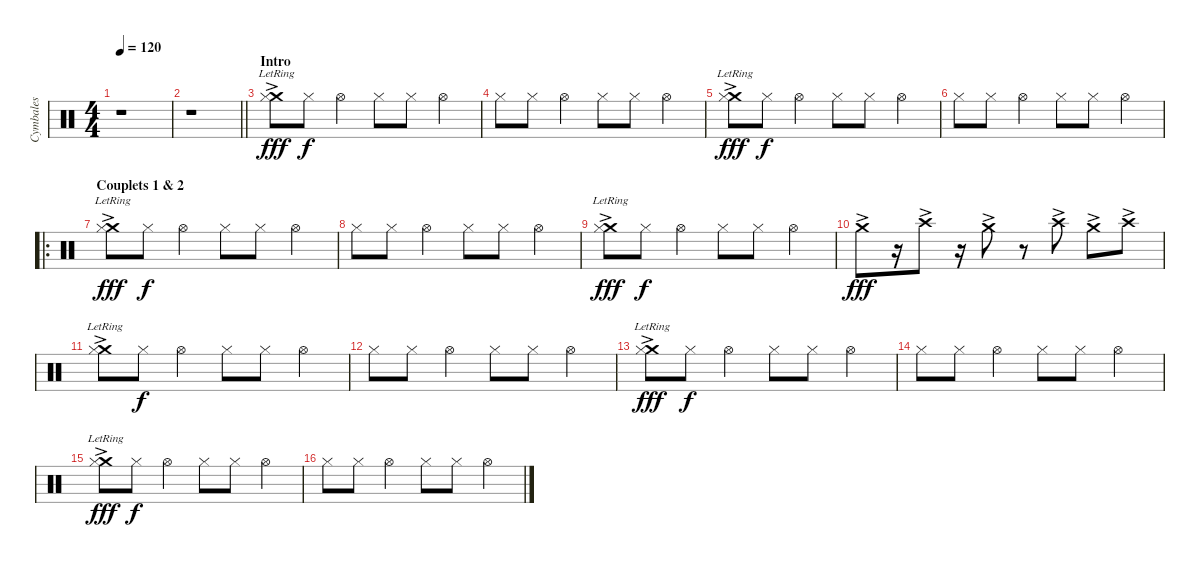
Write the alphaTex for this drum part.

\track ("Cymbales" "Cymbales") {instrument percussion}
\staff {score}
\articulation defaults
\ts (4 4)
\tempo 120
\clef neutral
\ks c
r.1{dy fff} |
\barLineRight lightlight
r.1 |
\section ("" "Intro")
("Crash medium (hit)"{ac lr} "Hi-Hat (closed)").8 "Hi-Hat (closed)".8{dy f} "Hi-Hat (open)".4 "Hi-Hat (closed)".8 "Hi-Hat (closed)".8 "Hi-Hat (open)".4 |
"Hi-Hat (closed)".8 "Hi-Hat (closed)".8 "Hi-Hat (open)".4 "Hi-Hat (closed)".8 "Hi-Hat (closed)".8 "Hi-Hat (open)".4 |
("Crash medium (hit)"{ac lr} "Hi-Hat (closed)").8{dy fff} "Hi-Hat (closed)".8{dy f} "Hi-Hat (open)".4 "Hi-Hat (closed)".8 "Hi-Hat (closed)".8 "Hi-Hat (open)".4 |
"Hi-Hat (closed)".8 "Hi-Hat (closed)".8 "Hi-Hat (open)".4 "Hi-Hat (closed)".8 "Hi-Hat (closed)".8 "Hi-Hat (open)".4 |
\ro
\section ("" "Couplets 1 & 2")
("Crash medium (hit)"{ac lr} "Hi-Hat (closed)").8{dy fff} "Hi-Hat (closed)".8{dy f} "Hi-Hat (open)".4 "Hi-Hat (closed)".8 "Hi-Hat (closed)".8 "Hi-Hat (open)".4 |
"Hi-Hat (closed)".8 "Hi-Hat (closed)".8 "Hi-Hat (open)".4 "Hi-Hat (closed)".8 "Hi-Hat (closed)".8 "Hi-Hat (open)".4 |
("Crash medium (hit)"{ac lr} "Hi-Hat (closed)").8{dy fff} "Hi-Hat (closed)".8{dy f} "Hi-Hat (open)".4 "Hi-Hat (closed)".8 "Hi-Hat (closed)".8 "Hi-Hat (open)".4 |
"Crash medium (hit)"{ac}.8{dy fff} r.16 "Crash high (hit)"{ac}.8 r.16 "Crash medium (hit)"{ac}.8 r.8 "Crash high (hit)"{ac}.8 "Crash medium (hit)"{ac}.8 "Crash high (hit)"{ac}.8 |
("Crash medium (hit)"{ac lr} "Hi-Hat (closed)").8 "Hi-Hat (closed)".8{dy f} "Hi-Hat (open)".4 "Hi-Hat (closed)".8 "Hi-Hat (closed)".8 "Hi-Hat (open)".4 |
"Hi-Hat (closed)".8 "Hi-Hat (closed)".8 "Hi-Hat (open)".4 "Hi-Hat (closed)".8 "Hi-Hat (closed)".8 "Hi-Hat (open)".4 |
("Crash medium (hit)"{ac lr} "Hi-Hat (closed)").8{dy fff} "Hi-Hat (closed)".8{dy f} "Hi-Hat (open)".4 "Hi-Hat (closed)".8 "Hi-Hat (closed)".8 "Hi-Hat (open)".4 |
"Hi-Hat (closed)".8 "Hi-Hat (closed)".8 "Hi-Hat (open)".4 "Hi-Hat (closed)".8 "Hi-Hat (closed)".8 "Hi-Hat (open)".4 |
("Crash medium (hit)"{ac lr} "Hi-Hat (closed)").8{dy fff} "Hi-Hat (closed)".8{dy f} "Hi-Hat (open)".4 "Hi-Hat (closed)".8 "Hi-Hat (closed)".8 "Hi-Hat (open)".4 |
"Hi-Hat (closed)".8 "Hi-Hat (closed)".8 "Hi-Hat (open)".4 "Hi-Hat (closed)".8 "Hi-Hat (closed)".8 "Hi-Hat (open)".4
